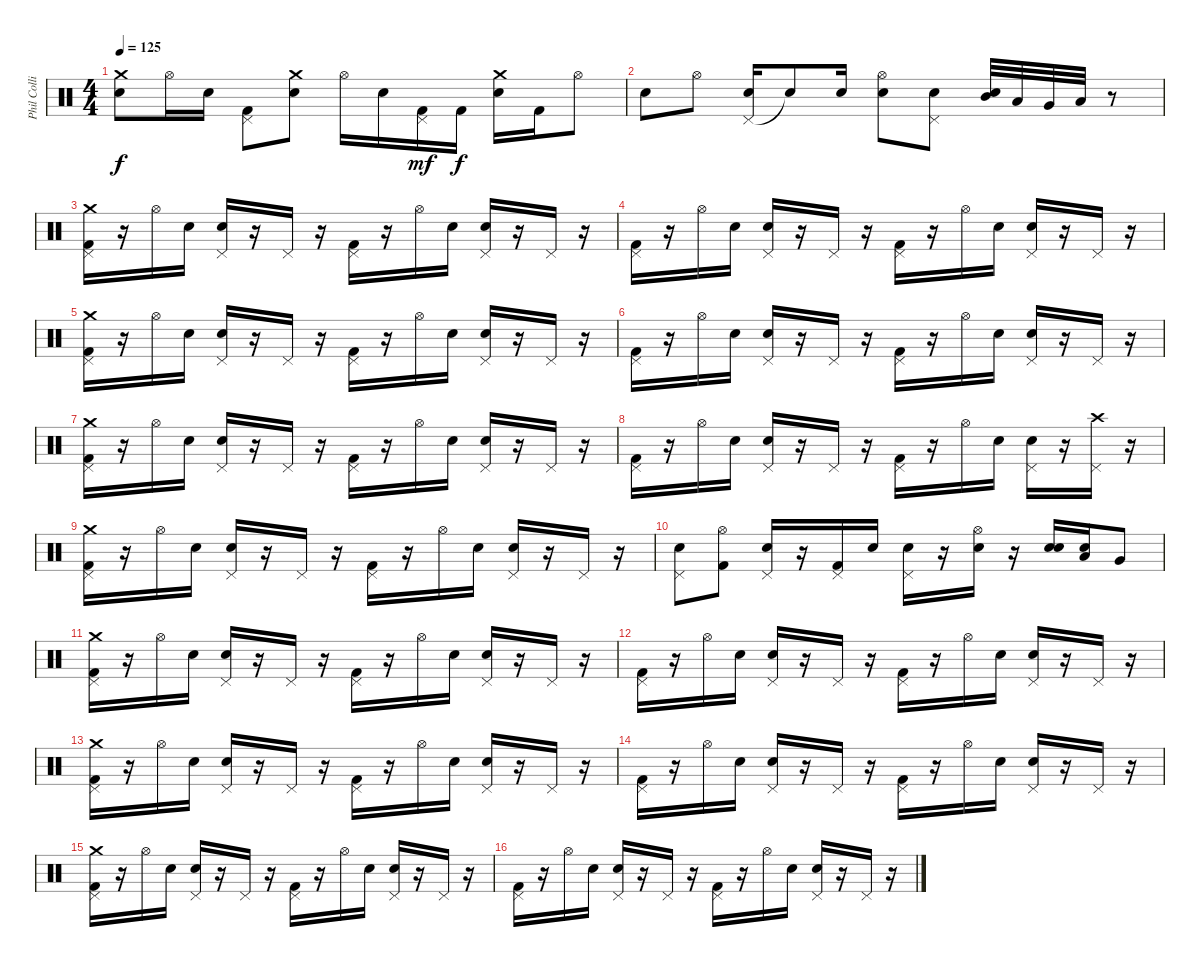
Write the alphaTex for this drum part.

\track ("Phil Collins (drums)" "Phil Colli") {instrument percussion}
\staff {score}
\articulation defaults
\ts (4 4)
\tempo 125
\clef neutral
\ks c
("Crash medium (hit)" "Electric Snare (hit)").8{dy f} "Hi-Hat (open)".16 "Electric Snare (hit)".16 ("Pedal Hi-Hat (hit)" "Kick (hit) 2").8 ("Crash medium (hit)" "Electric Snare (hit)").8 "Hi-Hat (open)".16 "Electric Snare (hit)".16 ("Pedal Hi-Hat (hit)" "Kick (hit) 2").16{dy mf} "Kick (hit) 2".16{dy f} ("Crash medium (hit)" "Electric Snare (hit)").16 "Kick (hit) 2".16 "Hi-Hat (open)".8 |
"Electric Snare (hit)".8 "Hi-Hat (open)".8 ("Pedal Hi-Hat (hit)" "Electric Snare (hit)").16 "Snare (hit)"{t}.8 "Electric Snare (hit)".16 ("Hi-Hat (open)" "Electric Snare (hit)").8 ("Pedal Hi-Hat (hit)" "Electric Snare (hit)").8 ("Mid Tom (hit)" "Electric Snare (hit)").32 "Low Tom (hit)".32 "Very Low Tom (hit)".32 "Low Floor Tom (hit)".32 r.8 |
("Crash medium (hit)" "Pedal Hi-Hat (hit)" "Kick (hit) 2").16 r.16 "Hi-Hat (open)".16 "Electric Snare (hit)".16 ("Pedal Hi-Hat (hit)" "Electric Snare (hit)").16 r.16 "Pedal Hi-Hat (hit)".16 r.16 ("Pedal Hi-Hat (hit)" "Kick (hit) 2").16 r.16 "Hi-Hat (open)".16 "Electric Snare (hit)".16 ("Pedal Hi-Hat (hit)" "Electric Snare (hit)").16 r.16 "Pedal Hi-Hat (hit)".16 r.16 |
("Pedal Hi-Hat (hit)" "Kick (hit) 2").16 r.16 "Hi-Hat (open)".16 "Electric Snare (hit)".16 ("Pedal Hi-Hat (hit)" "Electric Snare (hit)").16 r.16 "Pedal Hi-Hat (hit)".16 r.16 ("Pedal Hi-Hat (hit)" "Kick (hit) 2").16 r.16 "Hi-Hat (open)".16 "Electric Snare (hit)".16 ("Pedal Hi-Hat (hit)" "Electric Snare (hit)").16 r.16 "Pedal Hi-Hat (hit)".16 r.16 |
("Crash medium (hit)" "Pedal Hi-Hat (hit)" "Kick (hit) 2").16 r.16 "Hi-Hat (open)".16 "Electric Snare (hit)".16 ("Pedal Hi-Hat (hit)" "Electric Snare (hit)").16 r.16 "Pedal Hi-Hat (hit)".16 r.16 ("Pedal Hi-Hat (hit)" "Kick (hit) 2").16 r.16 "Hi-Hat (open)".16 "Electric Snare (hit)".16 ("Pedal Hi-Hat (hit)" "Electric Snare (hit)").16 r.16 "Pedal Hi-Hat (hit)".16 r.16 |
("Pedal Hi-Hat (hit)" "Kick (hit) 2").16 r.16 "Hi-Hat (open)".16 "Electric Snare (hit)".16 ("Pedal Hi-Hat (hit)" "Electric Snare (hit)").16 r.16 "Pedal Hi-Hat (hit)".16 r.16 ("Pedal Hi-Hat (hit)" "Kick (hit) 2").16 r.16 "Hi-Hat (open)".16 "Electric Snare (hit)".16 ("Pedal Hi-Hat (hit)" "Electric Snare (hit)").16 r.16 "Pedal Hi-Hat (hit)".16 r.16 |
("Crash medium (hit)" "Pedal Hi-Hat (hit)" "Kick (hit) 2").16 r.16 "Hi-Hat (open)".16 "Electric Snare (hit)".16 ("Pedal Hi-Hat (hit)" "Electric Snare (hit)").16 r.16 "Pedal Hi-Hat (hit)".16 r.16 ("Pedal Hi-Hat (hit)" "Kick (hit) 2").16 r.16 "Hi-Hat (open)".16 "Electric Snare (hit)".16 ("Pedal Hi-Hat (hit)" "Electric Snare (hit)").16 r.16 "Pedal Hi-Hat (hit)".16 r.16 |
("Pedal Hi-Hat (hit)" "Kick (hit) 2").16 r.16 "Hi-Hat (open)".16 "Electric Snare (hit)".16 ("Pedal Hi-Hat (hit)" "Electric Snare (hit)").16 r.16 "Pedal Hi-Hat (hit)".16 r.16 ("Pedal Hi-Hat (hit)" "Kick (hit) 2").16 r.16 "Hi-Hat (open)".16 "Electric Snare (hit)".16 ("Pedal Hi-Hat (hit)" "Electric Snare (hit)").16 r.16 ("Crash high (hit)" "Pedal Hi-Hat (hit)").16 r.16 |
("Crash medium (hit)" "Pedal Hi-Hat (hit)" "Kick (hit) 2").16 r.16 "Hi-Hat (open)".16 "Electric Snare (hit)".16 ("Pedal Hi-Hat (hit)" "Electric Snare (hit)").16 r.16 "Pedal Hi-Hat (hit)".16 r.16 ("Pedal Hi-Hat (hit)" "Kick (hit) 2").16 r.16 "Hi-Hat (open)".16 "Electric Snare (hit)".16 ("Pedal Hi-Hat (hit)" "Electric Snare (hit)").16 r.16 "Pedal Hi-Hat (hit)".16 r.16 |
("Pedal Hi-Hat (hit)" "Electric Snare (hit)").8 ("Hi-Hat (open)" "Kick (hit) 2").8 ("Pedal Hi-Hat (hit)" "Electric Snare (hit)").16 r.16 ("Pedal Hi-Hat (hit)" "Kick (hit) 2").16 "Electric Snare (hit)".16 ("Pedal Hi-Hat (hit)" "Electric Snare (hit)").16 r.16 ("Hi-Hat (open)" "Electric Snare (hit)").16 r.16 ("Electric Snare (hit)" "Electric Snare (hit)").16 ("Low Tom (hit)" "Electric Snare (hit)").16 "Very Low Tom (hit)".8 |
("Crash medium (hit)" "Pedal Hi-Hat (hit)" "Kick (hit) 2").16 r.16 "Hi-Hat (open)".16 "Electric Snare (hit)".16 ("Pedal Hi-Hat (hit)" "Electric Snare (hit)").16 r.16 "Pedal Hi-Hat (hit)".16 r.16 ("Pedal Hi-Hat (hit)" "Kick (hit) 2").16 r.16 "Hi-Hat (open)".16 "Electric Snare (hit)".16 ("Pedal Hi-Hat (hit)" "Electric Snare (hit)").16 r.16 "Pedal Hi-Hat (hit)".16 r.16 |
("Pedal Hi-Hat (hit)" "Kick (hit) 2").16 r.16 "Hi-Hat (open)".16 "Electric Snare (hit)".16 ("Pedal Hi-Hat (hit)" "Electric Snare (hit)").16 r.16 "Pedal Hi-Hat (hit)".16 r.16 ("Pedal Hi-Hat (hit)" "Kick (hit) 2").16 r.16 "Hi-Hat (open)".16 "Electric Snare (hit)".16 ("Pedal Hi-Hat (hit)" "Electric Snare (hit)").16 r.16 "Pedal Hi-Hat (hit)".16 r.16 |
("Crash medium (hit)" "Pedal Hi-Hat (hit)" "Kick (hit) 2").16 r.16 "Hi-Hat (open)".16 "Electric Snare (hit)".16 ("Pedal Hi-Hat (hit)" "Electric Snare (hit)").16 r.16 "Pedal Hi-Hat (hit)".16 r.16 ("Pedal Hi-Hat (hit)" "Kick (hit) 2").16 r.16 "Hi-Hat (open)".16 "Electric Snare (hit)".16 ("Pedal Hi-Hat (hit)" "Electric Snare (hit)").16 r.16 "Pedal Hi-Hat (hit)".16 r.16 |
("Pedal Hi-Hat (hit)" "Kick (hit) 2").16 r.16 "Hi-Hat (open)".16 "Electric Snare (hit)".16 ("Pedal Hi-Hat (hit)" "Electric Snare (hit)").16 r.16 "Pedal Hi-Hat (hit)".16 r.16 ("Pedal Hi-Hat (hit)" "Kick (hit) 2").16 r.16 "Hi-Hat (open)".16 "Electric Snare (hit)".16 ("Pedal Hi-Hat (hit)" "Electric Snare (hit)").16 r.16 "Pedal Hi-Hat (hit)".16 r.16 |
("Crash medium (hit)" "Pedal Hi-Hat (hit)" "Kick (hit) 2").16 r.16 "Hi-Hat (open)".16 "Electric Snare (hit)".16 ("Pedal Hi-Hat (hit)" "Electric Snare (hit)").16 r.16 "Pedal Hi-Hat (hit)".16 r.16 ("Pedal Hi-Hat (hit)" "Kick (hit) 2").16 r.16 "Hi-Hat (open)".16 "Electric Snare (hit)".16 ("Pedal Hi-Hat (hit)" "Electric Snare (hit)").16 r.16 "Pedal Hi-Hat (hit)".16 r.16 |
("Pedal Hi-Hat (hit)" "Kick (hit) 2").16 r.16 "Hi-Hat (open)".16 "Electric Snare (hit)".16 ("Pedal Hi-Hat (hit)" "Electric Snare (hit)").16 r.16 "Pedal Hi-Hat (hit)".16 r.16 ("Pedal Hi-Hat (hit)" "Kick (hit) 2").16 r.16 "Hi-Hat (open)".16 "Electric Snare (hit)".16 ("Pedal Hi-Hat (hit)" "Electric Snare (hit)").16 r.16 "Pedal Hi-Hat (hit)".16 r.16
